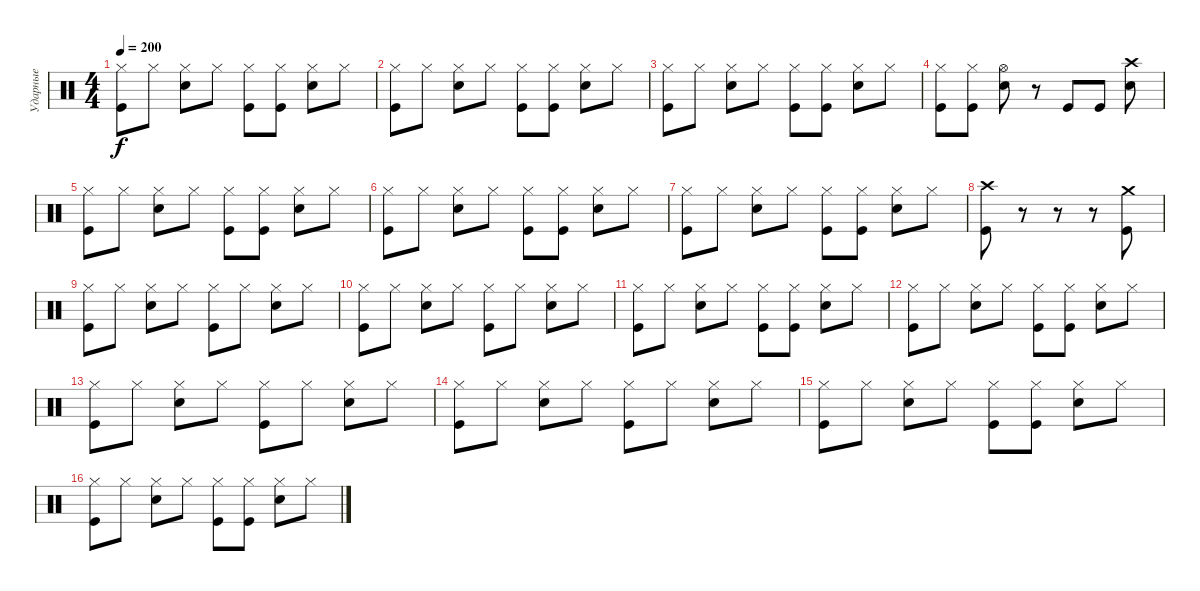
\track ("Ударные" "Ударные") {instrument percussion}
\staff {score}
\articulation defaults
\ts (4 4)
\tempo 200
\clef neutral
\ks c
("Kick (hit)" "Hi-Hat (closed)").8{dy f} "Hi-Hat (closed)".8 ("Electric Snare (hit)" "Hi-Hat (closed)").8 "Hi-Hat (closed)".8 ("Kick (hit)" "Hi-Hat (closed)").8 ("Kick (hit)" "Hi-Hat (closed)").8 ("Electric Snare (hit)" "Hi-Hat (closed)").8 "Hi-Hat (closed)".8 |
("Kick (hit)" "Hi-Hat (closed)").8 "Hi-Hat (closed)".8 ("Electric Snare (hit)" "Hi-Hat (closed)").8 "Hi-Hat (closed)".8 ("Kick (hit)" "Hi-Hat (closed)").8 ("Kick (hit)" "Hi-Hat (closed)").8 ("Electric Snare (hit)" "Hi-Hat (closed)").8 "Hi-Hat (closed)".8 |
("Kick (hit)" "Hi-Hat (closed)").8 "Hi-Hat (closed)".8 ("Electric Snare (hit)" "Hi-Hat (closed)").8 "Hi-Hat (closed)".8 ("Kick (hit)" "Hi-Hat (closed)").8 ("Kick (hit)" "Hi-Hat (closed)").8 ("Electric Snare (hit)" "Hi-Hat (closed)").8 "Hi-Hat (closed)".8 |
("Kick (hit)" "Hi-Hat (closed)").8 ("Kick (hit)" "Hi-Hat (closed)").8 ("Electric Snare (hit)" "Hi-Hat (open)").8 r.8 "Kick (hit)".8 "Kick (hit)".8 ("Electric Snare (hit)" "Crash high (hit)").8 |
("Kick (hit)" "Hi-Hat (closed)").8 "Hi-Hat (closed)".8 ("Electric Snare (hit)" "Hi-Hat (closed)").8 "Hi-Hat (closed)".8 ("Kick (hit)" "Hi-Hat (closed)").8 ("Kick (hit)" "Hi-Hat (closed)").8 ("Electric Snare (hit)" "Hi-Hat (closed)").8 "Hi-Hat (closed)".8 |
("Kick (hit)" "Hi-Hat (closed)").8 "Hi-Hat (closed)".8 ("Electric Snare (hit)" "Hi-Hat (closed)").8 "Hi-Hat (closed)".8 ("Kick (hit)" "Hi-Hat (closed)").8 ("Kick (hit)" "Hi-Hat (closed)").8 ("Electric Snare (hit)" "Hi-Hat (closed)").8 "Hi-Hat (closed)".8 |
("Kick (hit)" "Hi-Hat (closed)").8 "Hi-Hat (closed)".8 ("Electric Snare (hit)" "Hi-Hat (closed)").8 "Hi-Hat (closed)".8 ("Kick (hit)" "Hi-Hat (closed)").8 ("Kick (hit)" "Hi-Hat (closed)").8 ("Electric Snare (hit)" "Hi-Hat (closed)").8 "Hi-Hat (closed)".8 |
("Kick (hit)" "Crash high (hit)").8 r.8 r.8 r.8 ("Kick (hit)" "Crash medium (hit)").8 |
("Kick (hit)" "Hi-Hat (closed)").8 "Hi-Hat (closed)".8 ("Electric Snare (hit)" "Hi-Hat (closed)").8 "Hi-Hat (closed)".8 ("Kick (hit)" "Hi-Hat (closed)").8 "Hi-Hat (closed)".8 ("Electric Snare (hit)" "Hi-Hat (closed)").8 "Hi-Hat (closed)".8 |
("Kick (hit)" "Hi-Hat (closed)").8 "Hi-Hat (closed)".8 ("Electric Snare (hit)" "Hi-Hat (closed)").8 "Hi-Hat (closed)".8 ("Kick (hit)" "Hi-Hat (closed)").8 "Hi-Hat (closed)".8 ("Electric Snare (hit)" "Hi-Hat (closed)").8 "Hi-Hat (closed)".8 |
("Kick (hit)" "Hi-Hat (closed)").8 "Hi-Hat (closed)".8 ("Electric Snare (hit)" "Hi-Hat (closed)").8 "Hi-Hat (closed)".8 ("Kick (hit)" "Hi-Hat (closed)").8 ("Kick (hit)" "Hi-Hat (closed)").8 ("Electric Snare (hit)" "Hi-Hat (closed)").8 "Hi-Hat (closed)".8 |
("Kick (hit)" "Hi-Hat (closed)").8 "Hi-Hat (closed)".8 ("Electric Snare (hit)" "Hi-Hat (closed)").8 "Hi-Hat (closed)".8 ("Kick (hit)" "Hi-Hat (closed)").8 ("Kick (hit)" "Hi-Hat (closed)").8 ("Electric Snare (hit)" "Hi-Hat (closed)").8 "Hi-Hat (closed)".8 |
("Kick (hit)" "Hi-Hat (closed)").8 "Hi-Hat (closed)".8 ("Electric Snare (hit)" "Hi-Hat (closed)").8 "Hi-Hat (closed)".8 ("Kick (hit)" "Hi-Hat (closed)").8 "Hi-Hat (closed)".8 ("Electric Snare (hit)" "Hi-Hat (closed)").8 "Hi-Hat (closed)".8 |
("Kick (hit)" "Hi-Hat (closed)").8 "Hi-Hat (closed)".8 ("Electric Snare (hit)" "Hi-Hat (closed)").8 "Hi-Hat (closed)".8 ("Kick (hit)" "Hi-Hat (closed)").8 "Hi-Hat (closed)".8 ("Electric Snare (hit)" "Hi-Hat (closed)").8 "Hi-Hat (closed)".8 |
("Kick (hit)" "Hi-Hat (closed)").8 "Hi-Hat (closed)".8 ("Electric Snare (hit)" "Hi-Hat (closed)").8 "Hi-Hat (closed)".8 ("Kick (hit)" "Hi-Hat (closed)").8 ("Kick (hit)" "Hi-Hat (closed)").8 ("Electric Snare (hit)" "Hi-Hat (closed)").8 "Hi-Hat (closed)".8 |
("Kick (hit)" "Hi-Hat (closed)").8 "Hi-Hat (closed)".8 ("Electric Snare (hit)" "Hi-Hat (closed)").8 "Hi-Hat (closed)".8 ("Kick (hit)" "Hi-Hat (closed)").8 ("Kick (hit)" "Hi-Hat (closed)").8 ("Electric Snare (hit)" "Hi-Hat (closed)").8 "Hi-Hat (closed)".8
